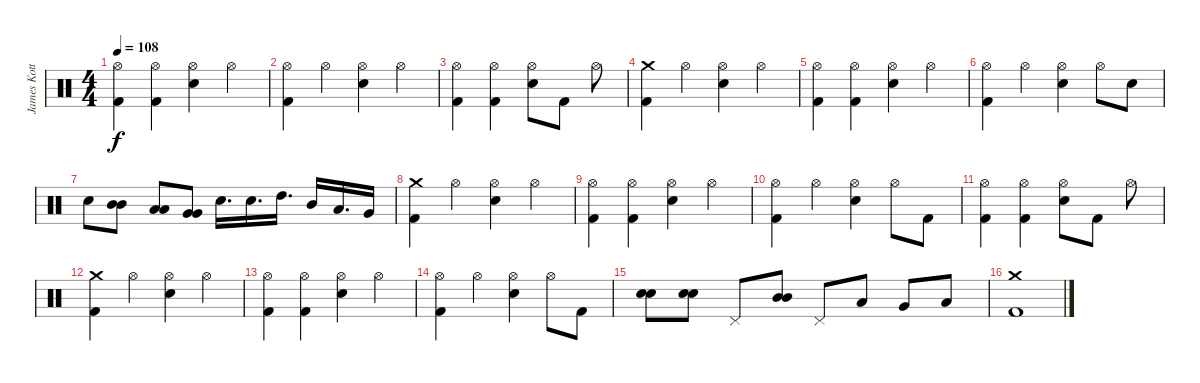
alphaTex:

\track ("James Kottak" "James Kott") {instrument percussion}
\staff {score}
\articulation defaults
\ts (4 4)
\tempo 108
\clef neutral
\ks c
("Hi-Hat (open)" "Kick (hit) 2").4{dy f} ("Hi-Hat (open)" "Kick (hit) 2").4 ("Hi-Hat (open)" "Snare (hit) 2").4 "Hi-Hat (open)".4 |
("Hi-Hat (open)" "Kick (hit) 2").4 "Hi-Hat (open)".4 ("Hi-Hat (open)" "Snare (hit) 2").4 "Hi-Hat (open)".4 |
("Hi-Hat (open)" "Kick (hit) 2").4 ("Hi-Hat (open)" "Kick (hit) 2").4 ("Hi-Hat (open)" "Snare (hit) 2").8 "Kick (hit) 2".8 "Hi-Hat (open)".8 |
("Crash medium (hit)" "Kick (hit) 2").4 "Hi-Hat (open)".4 ("Hi-Hat (open)" "Snare (hit) 2").4 "Hi-Hat (open)".4 |
("Hi-Hat (open)" "Kick (hit) 2").4 ("Hi-Hat (open)" "Kick (hit) 2").4 ("Hi-Hat (open)" "Snare (hit) 2").4 "Hi-Hat (open)".4 |
("Hi-Hat (open)" "Kick (hit) 2").4 "Hi-Hat (open)".4 ("Hi-Hat (open)" "Snare (hit) 2").4 "Hi-Hat (open)".8 "Snare (hit) 2".8 |
"Snare (hit) 2".8 ("Mid Tom (hit)" "Mid Tom (hit)").8{bd 120} ("Low Tom (hit)" "Low Tom (hit)").8{bd 120} ("Very Low Tom (hit)" "Very Low Tom (hit)").8{bd 120} "Snare (hit) 2".16{d} "Snare (hit) 2".16{d} "High Tom (hit)".16{d} "Mid Tom (hit)".16 "Low Tom (hit)".16{d} "Very Low Tom (hit)".16 |
("Crash medium (hit)" "Kick (hit) 2").4 "Hi-Hat (open)".4 ("Hi-Hat (open)" "Snare (hit) 2").4 "Hi-Hat (open)".4 |
("Hi-Hat (open)" "Kick (hit) 2").4 ("Hi-Hat (open)" "Kick (hit) 2").4 ("Hi-Hat (open)" "Snare (hit) 2").4 "Hi-Hat (open)".4 |
("Hi-Hat (open)" "Kick (hit) 2").4 "Hi-Hat (open)".4 ("Hi-Hat (open)" "Snare (hit) 2").4 "Hi-Hat (open)".8 "Kick (hit) 2".8 |
("Hi-Hat (open)" "Kick (hit) 2").4 ("Hi-Hat (open)" "Kick (hit) 2").4 ("Hi-Hat (open)" "Snare (hit) 2").8 "Kick (hit) 2".8 "Hi-Hat (open)".8 |
("Crash medium (hit)" "Kick (hit) 2").4 "Hi-Hat (open)".4 ("Hi-Hat (open)" "Snare (hit) 2").4 "Hi-Hat (open)".4 |
("Hi-Hat (open)" "Kick (hit) 2").4 ("Hi-Hat (open)" "Kick (hit) 2").4 ("Hi-Hat (open)" "Snare (hit) 2").4 "Hi-Hat (open)".4 |
("Hi-Hat (open)" "Kick (hit) 2").4 "Hi-Hat (open)".4 ("Hi-Hat (open)" "Snare (hit) 2").4 "Hi-Hat (open)".8 "Kick (hit) 2".8 |
("Snare (hit) 2" "Snare (hit) 2").8{bd 120} ("Snare (hit) 2" "Snare (hit) 2").8{bu 120} "Pedal Hi-Hat (hit)".8 ("Mid Tom (hit)" "Mid Tom (hit)").8{bd 120} "Pedal Hi-Hat (hit)".8 "Low Tom (hit)".8 "Very Low Tom (hit)".8 "Low Floor Tom (hit)".8 |
("Crash medium (hit)" "Kick (hit) 2").1
